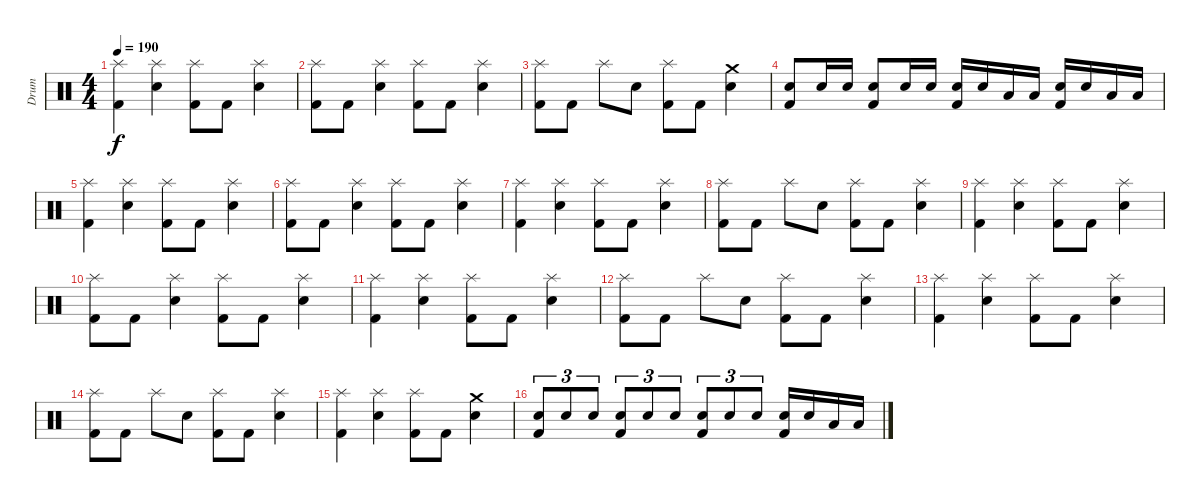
\track ("Drum" "Drum") {instrument percussion}
\staff {score}
\articulation defaults
\ts (4 4)
\tempo 190
\clef neutral
\ks c
("Splash (hit)" "Kick (hit) 2").4{dy f} ("Splash (hit)" "Electric Snare (hit)").4 ("Splash (hit)" "Kick (hit) 2").8 "Kick (hit) 2".8 ("Splash (hit)" "Electric Snare (hit)").4 |
("Splash (hit)" "Kick (hit) 2").8 "Kick (hit) 2".8 ("Splash (hit)" "Electric Snare (hit)").4 ("Splash (hit)" "Kick (hit) 2").8 "Kick (hit) 2".8 ("Splash (hit)" "Electric Snare (hit)").4 |
("Splash (hit)" "Kick (hit) 2").8 "Kick (hit) 2".8 "Splash (hit)".8 "Electric Snare (hit)".8 ("Splash (hit)" "Kick (hit) 2").8 "Kick (hit) 2".8 ("Crash medium (hit)" "Electric Snare (hit)").4 |
("Electric Snare (hit)" "Kick (hit) 2").8 "Electric Snare (hit)".16 "Electric Snare (hit)".16 ("Electric Snare (hit)" "Kick (hit) 2").8 "Electric Snare (hit)".16 "Electric Snare (hit)".16 ("Electric Snare (hit)" "Kick (hit) 2").16 "Electric Snare (hit)".16 "Low Tom (hit)".16 "Low Tom (hit)".16 ("Electric Snare (hit)" "Kick (hit) 2").16 "Electric Snare (hit)".16 "Low Tom (hit)".16 "Low Tom (hit)".16 |
("Splash (hit)" "Kick (hit) 2").4 ("Splash (hit)" "Electric Snare (hit)").4 ("Splash (hit)" "Kick (hit) 2").8 "Kick (hit) 2".8 ("Splash (hit)" "Electric Snare (hit)").4 |
("Splash (hit)" "Kick (hit) 2").8 "Kick (hit) 2".8 ("Splash (hit)" "Electric Snare (hit)").4 ("Splash (hit)" "Kick (hit) 2").8 "Kick (hit) 2".8 ("Splash (hit)" "Electric Snare (hit)").4 |
("Splash (hit)" "Kick (hit) 2").4 ("Splash (hit)" "Electric Snare (hit)").4 ("Splash (hit)" "Kick (hit) 2").8 "Kick (hit) 2".8 ("Splash (hit)" "Electric Snare (hit)").4 |
("Splash (hit)" "Kick (hit) 2").8 "Kick (hit) 2".8 "Splash (hit)".8 "Electric Snare (hit)".8 ("Splash (hit)" "Kick (hit) 2").8 "Kick (hit) 2".8 ("Splash (hit)" "Electric Snare (hit)").4 |
("Splash (hit)" "Kick (hit) 2").4 ("Splash (hit)" "Electric Snare (hit)").4 ("Splash (hit)" "Kick (hit) 2").8 "Kick (hit) 2".8 ("Splash (hit)" "Electric Snare (hit)").4 |
("Splash (hit)" "Kick (hit) 2").8 "Kick (hit) 2".8 ("Splash (hit)" "Electric Snare (hit)").4 ("Splash (hit)" "Kick (hit) 2").8 "Kick (hit) 2".8 ("Splash (hit)" "Electric Snare (hit)").4 |
("Splash (hit)" "Kick (hit) 2").4 ("Splash (hit)" "Electric Snare (hit)").4 ("Splash (hit)" "Kick (hit) 2").8 "Kick (hit) 2".8 ("Splash (hit)" "Electric Snare (hit)").4 |
("Splash (hit)" "Kick (hit) 2").8 "Kick (hit) 2".8 "Splash (hit)".8 "Electric Snare (hit)".8 ("Splash (hit)" "Kick (hit) 2").8 "Kick (hit) 2".8 ("Splash (hit)" "Electric Snare (hit)").4 |
("Splash (hit)" "Kick (hit) 2").4 ("Splash (hit)" "Electric Snare (hit)").4 ("Splash (hit)" "Kick (hit) 2").8 "Kick (hit) 2".8 ("Splash (hit)" "Electric Snare (hit)").4 |
("Splash (hit)" "Kick (hit) 2").8 "Kick (hit) 2".8 "Splash (hit)".8 "Electric Snare (hit)".8 ("Splash (hit)" "Kick (hit) 2").8 "Kick (hit) 2".8 ("Splash (hit)" "Electric Snare (hit)").4 |
("Splash (hit)" "Kick (hit) 2").4 ("Splash (hit)" "Electric Snare (hit)").4 ("Splash (hit)" "Kick (hit) 2").8 "Kick (hit) 2".8 ("Crash medium (hit)" "Electric Snare (hit)").4 |
("Electric Snare (hit)" "Kick (hit) 2").8{tu (3 2)} "Snare (hit) 2".8{tu (3 2)} "Electric Snare (hit)".8{tu (3 2)} ("Snare (hit) 2" "Kick (hit) 2").8{tu (3 2)} "Electric Snare (hit)".8{tu (3 2)} "Snare (hit) 2".8{tu (3 2)} ("Electric Snare (hit)" "Kick (hit) 2").8{tu (3 2)} "Snare (hit) 2".8{tu (3 2)} "Electric Snare (hit)".8{tu (3 2)} ("Electric Snare (hit)" "Kick (hit) 2").16 "Electric Snare (hit)".16 "Low Tom (hit)".16 "Low Tom (hit)".16
